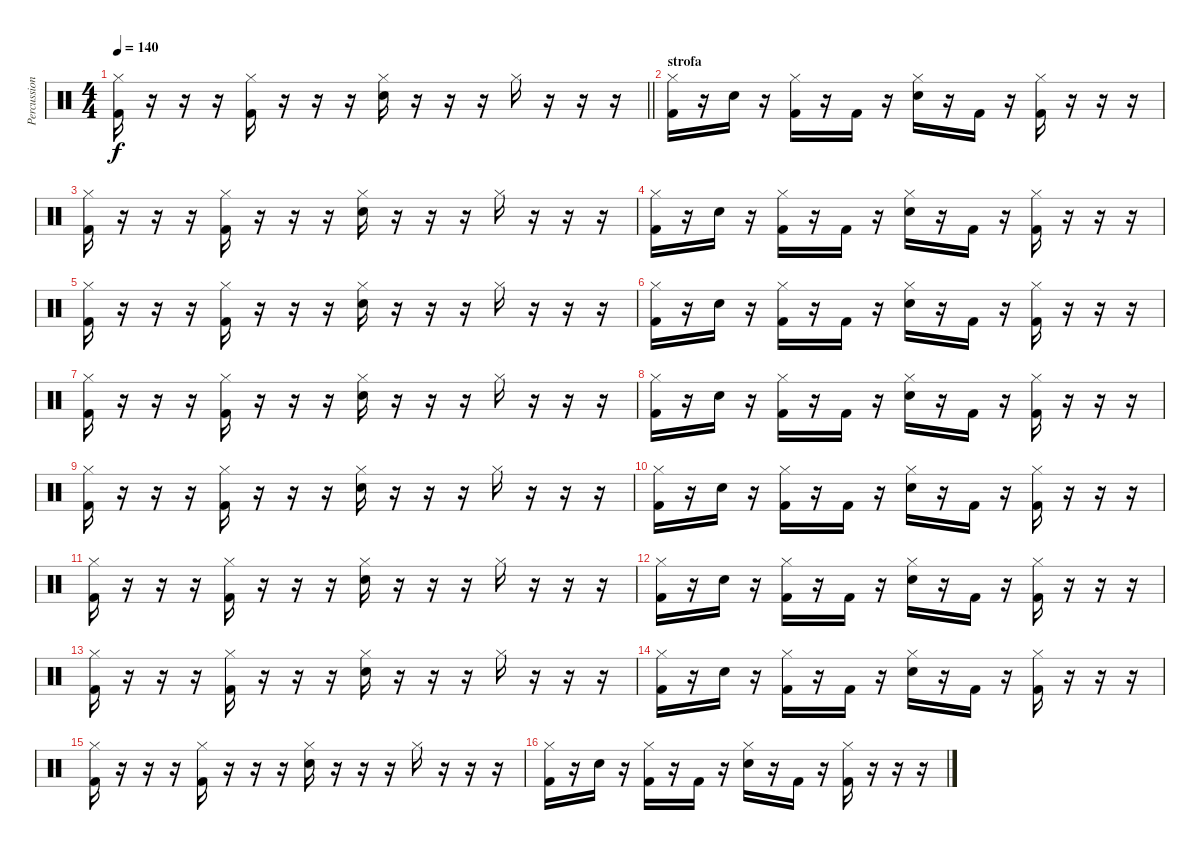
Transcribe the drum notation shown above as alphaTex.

\track ("Percussion" "Percussion") {instrument percussion}
\staff {score}
\articulation defaults
\ts (4 4)
\section ("" "")
\tempo 140
\clef neutral
\barLineRight lightlight
\ks c
("Hi-Hat (closed)" "Kick (hit) 2").16{dy f} r.16 r.16 r.16 ("Hi-Hat (closed)" "Kick (hit) 2").16 r.16 r.16 r.16 ("Hi-Hat (closed)" "Snare (hit) 2").16 r.16 r.16 r.16 "Hi-Hat (closed)".16 r.16 r.16 r.16 |
\section ("" "strofa")
("Hi-Hat (closed)" "Kick (hit) 2").16 r.16 "Snare (hit) 2".16 r.16 ("Hi-Hat (closed)" "Kick (hit) 2").16 r.16 "Kick (hit) 2".16 r.16 ("Hi-Hat (closed)" "Snare (hit) 2").16 r.16 "Kick (hit) 2".16 r.16 ("Hi-Hat (closed)" "Kick (hit) 2").16 r.16 r.16 r.16 |
("Hi-Hat (closed)" "Kick (hit) 2").16 r.16 r.16 r.16 ("Hi-Hat (closed)" "Kick (hit) 2").16 r.16 r.16 r.16 ("Hi-Hat (closed)" "Snare (hit) 2").16 r.16 r.16 r.16 "Hi-Hat (closed)".16 r.16 r.16 r.16 |
("Hi-Hat (closed)" "Kick (hit) 2").16 r.16 "Snare (hit) 2".16 r.16 ("Hi-Hat (closed)" "Kick (hit) 2").16 r.16 "Kick (hit) 2".16 r.16 ("Hi-Hat (closed)" "Snare (hit) 2").16 r.16 "Kick (hit) 2".16 r.16 ("Hi-Hat (closed)" "Kick (hit) 2").16 r.16 r.16 r.16 |
("Hi-Hat (closed)" "Kick (hit) 2").16 r.16 r.16 r.16 ("Hi-Hat (closed)" "Kick (hit) 2").16 r.16 r.16 r.16 ("Hi-Hat (closed)" "Snare (hit) 2").16 r.16 r.16 r.16 "Hi-Hat (closed)".16 r.16 r.16 r.16 |
("Hi-Hat (closed)" "Kick (hit) 2").16 r.16 "Snare (hit) 2".16 r.16 ("Hi-Hat (closed)" "Kick (hit) 2").16 r.16 "Kick (hit) 2".16 r.16 ("Hi-Hat (closed)" "Snare (hit) 2").16 r.16 "Kick (hit) 2".16 r.16 ("Hi-Hat (closed)" "Kick (hit) 2").16 r.16 r.16 r.16 |
("Hi-Hat (closed)" "Kick (hit) 2").16 r.16 r.16 r.16 ("Hi-Hat (closed)" "Kick (hit) 2").16 r.16 r.16 r.16 ("Hi-Hat (closed)" "Snare (hit) 2").16 r.16 r.16 r.16 "Hi-Hat (closed)".16 r.16 r.16 r.16 |
("Hi-Hat (closed)" "Kick (hit) 2").16 r.16 "Snare (hit) 2".16 r.16 ("Hi-Hat (closed)" "Kick (hit) 2").16 r.16 "Kick (hit) 2".16 r.16 ("Hi-Hat (closed)" "Snare (hit) 2").16 r.16 "Kick (hit) 2".16 r.16 ("Hi-Hat (closed)" "Kick (hit) 2").16 r.16 r.16 r.16 |
("Hi-Hat (closed)" "Kick (hit) 2").16 r.16 r.16 r.16 ("Hi-Hat (closed)" "Kick (hit) 2").16 r.16 r.16 r.16 ("Hi-Hat (closed)" "Snare (hit) 2").16 r.16 r.16 r.16 "Hi-Hat (closed)".16 r.16 r.16 r.16 |
("Hi-Hat (closed)" "Kick (hit) 2").16 r.16 "Snare (hit) 2".16 r.16 ("Hi-Hat (closed)" "Kick (hit) 2").16 r.16 "Kick (hit) 2".16 r.16 ("Hi-Hat (closed)" "Snare (hit) 2").16 r.16 "Kick (hit) 2".16 r.16 ("Hi-Hat (closed)" "Kick (hit) 2").16 r.16 r.16 r.16 |
("Hi-Hat (closed)" "Kick (hit) 2").16 r.16 r.16 r.16 ("Hi-Hat (closed)" "Kick (hit) 2").16 r.16 r.16 r.16 ("Hi-Hat (closed)" "Snare (hit) 2").16 r.16 r.16 r.16 "Hi-Hat (closed)".16 r.16 r.16 r.16 |
("Hi-Hat (closed)" "Kick (hit) 2").16 r.16 "Snare (hit) 2".16 r.16 ("Hi-Hat (closed)" "Kick (hit) 2").16 r.16 "Kick (hit) 2".16 r.16 ("Hi-Hat (closed)" "Snare (hit) 2").16 r.16 "Kick (hit) 2".16 r.16 ("Hi-Hat (closed)" "Kick (hit) 2").16 r.16 r.16 r.16 |
("Hi-Hat (closed)" "Kick (hit) 2").16 r.16 r.16 r.16 ("Hi-Hat (closed)" "Kick (hit) 2").16 r.16 r.16 r.16 ("Hi-Hat (closed)" "Snare (hit) 2").16 r.16 r.16 r.16 "Hi-Hat (closed)".16 r.16 r.16 r.16 |
("Hi-Hat (closed)" "Kick (hit) 2").16 r.16 "Snare (hit) 2".16 r.16 ("Hi-Hat (closed)" "Kick (hit) 2").16 r.16 "Kick (hit) 2".16 r.16 ("Hi-Hat (closed)" "Snare (hit) 2").16 r.16 "Kick (hit) 2".16 r.16 ("Hi-Hat (closed)" "Kick (hit) 2").16 r.16 r.16 r.16 |
("Hi-Hat (closed)" "Kick (hit) 2").16 r.16 r.16 r.16 ("Hi-Hat (closed)" "Kick (hit) 2").16 r.16 r.16 r.16 ("Hi-Hat (closed)" "Snare (hit) 2").16 r.16 r.16 r.16 "Hi-Hat (closed)".16 r.16 r.16 r.16 |
("Hi-Hat (closed)" "Kick (hit) 2").16 r.16 "Snare (hit) 2".16 r.16 ("Hi-Hat (closed)" "Kick (hit) 2").16 r.16 "Kick (hit) 2".16 r.16 ("Hi-Hat (closed)" "Snare (hit) 2").16 r.16 "Kick (hit) 2".16 r.16 ("Hi-Hat (closed)" "Kick (hit) 2").16 r.16 r.16 r.16
